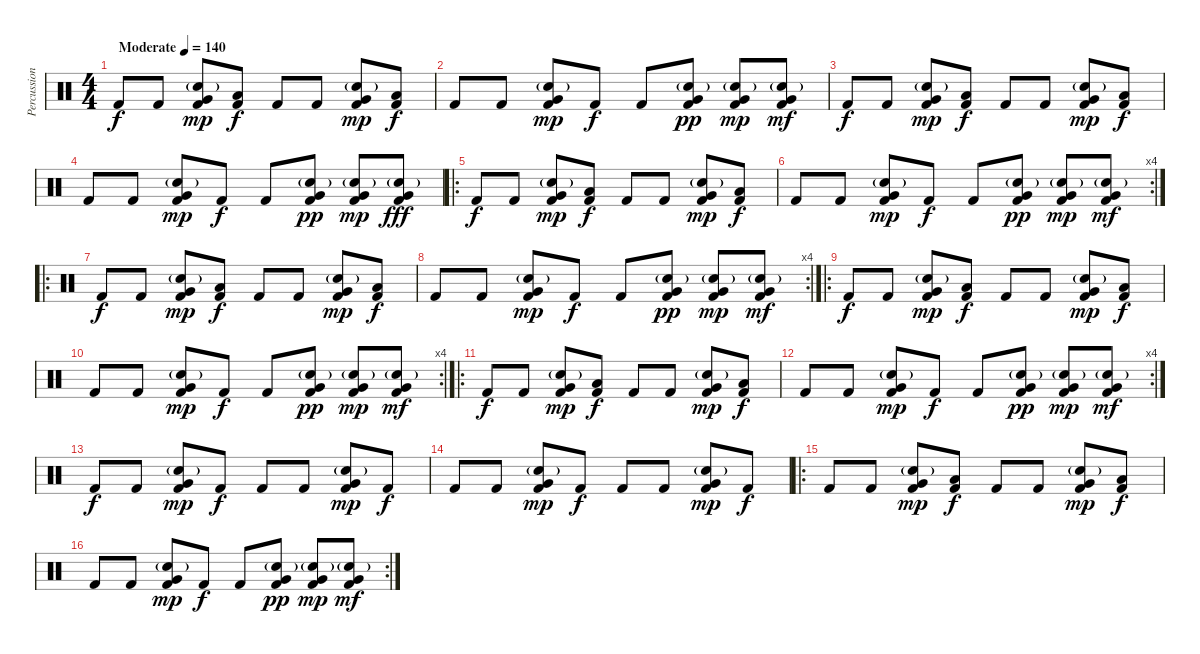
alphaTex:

\track ("Percussion" "Percussion") {instrument percussion}
\staff {score}
\articulation defaults
\ts (4 4)
\tempo (140 "Moderate")
\clef neutral
\ks c "Kick (hit) 2".8{dy f} "Kick (hit) 2".8
("Very Low Tom (hit)" "Electric Snare (hit)"{g} "Kick (hit) 2").8{dy mp} ("Low Floor Tom (hit)" "Kick (hit) 2").8{dy f} "Kick (hit) 2".8 "Kick (hit) 2".8 ("Very Low Tom (hit)" "Electric Snare (hit)"{g} "Kick (hit) 2").8{dy mp} ("Low Floor Tom (hit)" "Kick (hit) 2").8{dy f} |
"Kick (hit) 2".8 "Kick (hit) 2".8 ("Very Low Tom (hit)" "Electric Snare (hit)"{g} "Kick (hit) 2").8{dy mp} "Kick (hit) 2".8{dy f} "Kick (hit) 2".8 ("Very Low Tom (hit)" "Electric Snare (hit)"{g} "Kick (hit) 2").8{dy pp} ("Very Low Tom (hit)" "Electric Snare (hit)"{g} "Kick (hit) 2").8{dy mp} ("Very Low Tom (hit)" "Electric Snare (hit)"{g} "Kick (hit) 2").8{dy mf} |
"Kick (hit) 2".8{dy f} "Kick (hit) 2".8 ("Very Low Tom (hit)" "Electric Snare (hit)"{g} "Kick (hit) 2").8{dy mp} ("Low Floor Tom (hit)" "Kick (hit) 2").8{dy f} "Kick (hit) 2".8 "Kick (hit) 2".8 ("Very Low Tom (hit)" "Electric Snare (hit)"{g} "Kick (hit) 2").8{dy mp} ("Low Floor Tom (hit)" "Kick (hit) 2").8{dy f} |
"Kick (hit) 2".8 "Kick (hit) 2".8 ("Very Low Tom (hit)" "Electric Snare (hit)"{g} "Kick (hit) 2").8{dy mp} "Kick (hit) 2".8{dy f} "Kick (hit) 2".8 ("Very Low Tom (hit)" "Electric Snare (hit)"{g} "Kick (hit) 2").8{dy pp} ("Very Low Tom (hit)" "Electric Snare (hit)"{g} "Kick (hit) 2").8{dy mp} ("Very Low Tom (hit)" "Electric Snare (hit)"{g} "Kick (hit) 2").8{dy fff} |
\ro "Kick (hit) 2".8{dy f} "Kick (hit) 2".8
("Very Low Tom (hit)" "Electric Snare (hit)"{g} "Kick (hit) 2").8{dy mp} ("Low Floor Tom (hit)" "Kick (hit) 2").8{dy f} "Kick (hit) 2".8 "Kick (hit) 2".8 ("Very Low Tom (hit)" "Electric Snare (hit)"{g} "Kick (hit) 2").8{dy mp} ("Low Floor Tom (hit)" "Kick (hit) 2").8{dy f} |
\rc 4 "Kick (hit) 2".8 "Kick (hit) 2".8
("Very Low Tom (hit)" "Electric Snare (hit)"{g} "Kick (hit) 2").8{dy mp} "Kick (hit) 2".8{dy f} "Kick (hit) 2".8 ("Very Low Tom (hit)" "Electric Snare (hit)"{g} "Kick (hit) 2").8{dy pp} ("Very Low Tom (hit)" "Electric Snare (hit)"{g} "Kick (hit) 2").8{dy mp} ("Very Low Tom (hit)" "Electric Snare (hit)"{g} "Kick (hit) 2").8{dy mf} |
\ro "Kick (hit) 2".8{dy f} "Kick (hit) 2".8
("Very Low Tom (hit)" "Electric Snare (hit)"{g} "Kick (hit) 2").8{dy mp} ("Low Floor Tom (hit)" "Kick (hit) 2").8{dy f} "Kick (hit) 2".8 "Kick (hit) 2".8 ("Very Low Tom (hit)" "Electric Snare (hit)"{g} "Kick (hit) 2").8{dy mp} ("Low Floor Tom (hit)" "Kick (hit) 2").8{dy f} |
\rc 4 "Kick (hit) 2".8 "Kick (hit) 2".8
("Very Low Tom (hit)" "Electric Snare (hit)"{g} "Kick (hit) 2").8{dy mp} "Kick (hit) 2".8{dy f} "Kick (hit) 2".8 ("Very Low Tom (hit)" "Electric Snare (hit)"{g} "Kick (hit) 2").8{dy pp} ("Very Low Tom (hit)" "Electric Snare (hit)"{g} "Kick (hit) 2").8{dy mp} ("Very Low Tom (hit)" "Electric Snare (hit)"{g} "Kick (hit) 2").8{dy mf} |
\ro "Kick (hit) 2".8{dy f} "Kick (hit) 2".8
("Very Low Tom (hit)" "Electric Snare (hit)"{g} "Kick (hit) 2").8{dy mp} ("Low Floor Tom (hit)" "Kick (hit) 2").8{dy f} "Kick (hit) 2".8 "Kick (hit) 2".8 ("Very Low Tom (hit)" "Electric Snare (hit)"{g} "Kick (hit) 2").8{dy mp} ("Low Floor Tom (hit)" "Kick (hit) 2").8{dy f} |
\rc 4 "Kick (hit) 2".8 "Kick (hit) 2".8
("Very Low Tom (hit)" "Electric Snare (hit)"{g} "Kick (hit) 2").8{dy mp} "Kick (hit) 2".8{dy f} "Kick (hit) 2".8 ("Very Low Tom (hit)" "Electric Snare (hit)"{g} "Kick (hit) 2").8{dy pp} ("Very Low Tom (hit)" "Electric Snare (hit)"{g} "Kick (hit) 2").8{dy mp} ("Very Low Tom (hit)" "Electric Snare (hit)"{g} "Kick (hit) 2").8{dy mf} |
\ro "Kick (hit) 2".8{dy f} "Kick (hit) 2".8
("Very Low Tom (hit)" "Electric Snare (hit)"{g} "Kick (hit) 2").8{dy mp} ("Low Floor Tom (hit)" "Kick (hit) 2").8{dy f} "Kick (hit) 2".8 "Kick (hit) 2".8 ("Very Low Tom (hit)" "Electric Snare (hit)"{g} "Kick (hit) 2").8{dy mp} ("Low Floor Tom (hit)" "Kick (hit) 2").8{dy f} |
\rc 4 "Kick (hit) 2".8 "Kick (hit) 2".8
("Very Low Tom (hit)" "Electric Snare (hit)"{g} "Kick (hit) 2").8{dy mp} "Kick (hit) 2".8{dy f} "Kick (hit) 2".8 ("Very Low Tom (hit)" "Electric Snare (hit)"{g} "Kick (hit) 2").8{dy pp} ("Very Low Tom (hit)" "Electric Snare (hit)"{g} "Kick (hit) 2").8{dy mp} ("Very Low Tom (hit)" "Electric Snare (hit)"{g} "Kick (hit) 2").8{dy mf} |
"Kick (hit) 2".8{dy f} "Kick (hit) 2".8 ("Very Low Tom (hit)" "Electric Snare (hit)"{g} "Kick (hit) 2").8{dy mp} "Kick (hit) 2".8{dy f} "Kick (hit) 2".8 "Kick (hit) 2".8 ("Very Low Tom (hit)" "Electric Snare (hit)"{g} "Kick (hit) 2").8{dy mp} "Kick (hit) 2".8{dy f} |
"Kick (hit) 2".8 "Kick (hit) 2".8 ("Very Low Tom (hit)" "Electric Snare (hit)"{g} "Kick (hit) 2").8{dy mp} "Kick (hit) 2".8{dy f} "Kick (hit) 2".8 "Kick (hit) 2".8 ("Very Low Tom (hit)" "Electric Snare (hit)"{g} "Kick (hit) 2").8{dy mp} "Kick (hit) 2".8{dy f} |
\ro "Kick (hit) 2".8 "Kick (hit) 2".8
("Very Low Tom (hit)" "Electric Snare (hit)"{g} "Kick (hit) 2").8{dy mp} ("Low Floor Tom (hit)" "Kick (hit) 2").8{dy f} "Kick (hit) 2".8 "Kick (hit) 2".8 ("Very Low Tom (hit)" "Electric Snare (hit)"{g} "Kick (hit) 2").8{dy mp} ("Low Floor Tom (hit)" "Kick (hit) 2").8{dy f} |
\rc 2 "Kick (hit) 2".8 "Kick (hit) 2".8
("Very Low Tom (hit)" "Electric Snare (hit)"{g} "Kick (hit) 2").8{dy mp} "Kick (hit) 2".8{dy f} "Kick (hit) 2".8 ("Very Low Tom (hit)" "Electric Snare (hit)"{g} "Kick (hit) 2").8{dy pp} ("Very Low Tom (hit)" "Electric Snare (hit)"{g} "Kick (hit) 2").8{dy mp} ("Very Low Tom (hit)" "Electric Snare (hit)"{g} "Kick (hit) 2").8{dy mf}
